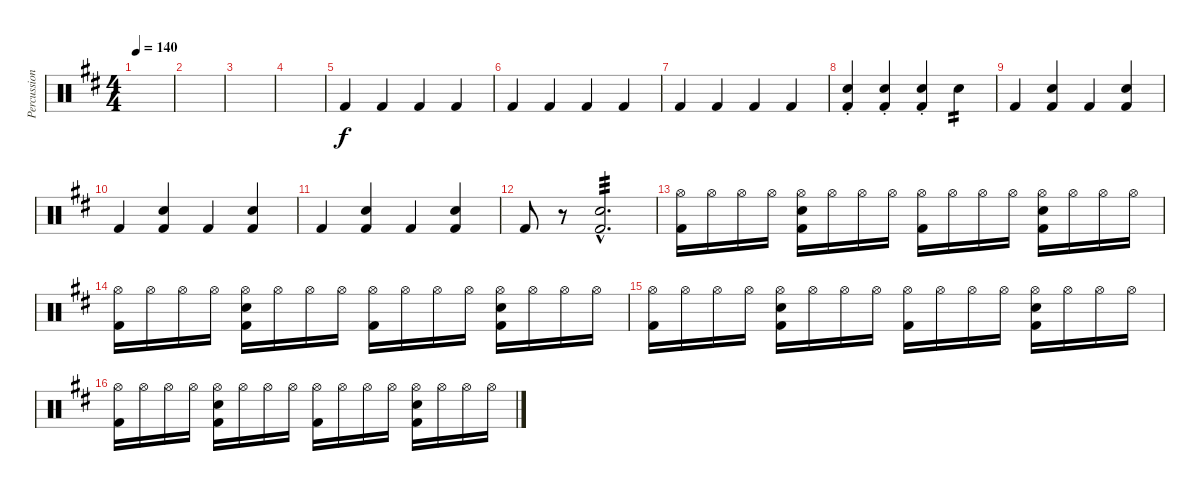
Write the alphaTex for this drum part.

\track ("Percussion" "Percussion") {instrument percussion}
\staff {score}
\articulation defaults
\ts (4 4)
\tempo 140
\clef neutral
\ks bminor
|
|
|
|
"Kick (hit) 2".4 "Kick (hit) 2".4 "Kick (hit) 2".4 "Kick (hit) 2".4 |
"Kick (hit) 2".4 "Kick (hit) 2".4 "Kick (hit) 2".4 "Kick (hit) 2".4 |
"Kick (hit) 2".4 "Kick (hit) 2".4 "Kick (hit) 2".4 "Kick (hit) 2".4 |
("Electric Snare (hit)"{st} "Kick (hit) 2"{st}).4 ("Electric Snare (hit)"{st} "Kick (hit) 2"{st}).4 ("Electric Snare (hit)"{st} "Kick (hit) 2"{st}).4 "Electric Snare (hit)".4{tp 2} |
"Kick (hit) 2".4 ("Electric Snare (hit)" "Kick (hit) 2").4 "Kick (hit) 2".4 ("Electric Snare (hit)" "Kick (hit) 2").4 |
"Kick (hit) 2".4 ("Electric Snare (hit)" "Kick (hit) 2").4 "Kick (hit) 2".4 ("Electric Snare (hit)" "Kick (hit) 2").4 |
"Kick (hit) 2".4 ("Electric Snare (hit)" "Kick (hit) 2").4 "Kick (hit) 2".4 ("Electric Snare (hit)" "Kick (hit) 2").4 |
"Kick (hit) 2".8 r.8{volume 0} ("Electric Snare (hit)"{hac} "Kick (hit) 2"{hac}).2{d tp 3 volume 15} |
("Hi-Hat (open)" "Kick (hit) 2").16 "Hi-Hat (open)".16 "Hi-Hat (open)".16 "Hi-Hat (open)".16 ("Hi-Hat (open)" "Electric Snare (hit)" "Kick (hit) 2").16 "Hi-Hat (open)".16 "Hi-Hat (open)".16 "Hi-Hat (open)".16 ("Hi-Hat (open)" "Kick (hit) 2").16 "Hi-Hat (open)".16 "Hi-Hat (open)".16 "Hi-Hat (open)".16 ("Hi-Hat (open)" "Electric Snare (hit)" "Kick (hit) 2").16 "Hi-Hat (open)".16 "Hi-Hat (open)".16 "Hi-Hat (open)".16 |
("Hi-Hat (open)" "Kick (hit) 2").16 "Hi-Hat (open)".16 "Hi-Hat (open)".16 "Hi-Hat (open)".16 ("Hi-Hat (open)" "Electric Snare (hit)" "Kick (hit) 2").16 "Hi-Hat (open)".16 "Hi-Hat (open)".16 "Hi-Hat (open)".16 ("Hi-Hat (open)" "Kick (hit) 2").16 "Hi-Hat (open)".16 "Hi-Hat (open)".16 "Hi-Hat (open)".16 ("Hi-Hat (open)" "Electric Snare (hit)" "Kick (hit) 2").16 "Hi-Hat (open)".16 "Hi-Hat (open)".16 "Hi-Hat (open)".16 |
("Hi-Hat (open)" "Kick (hit) 2").16 "Hi-Hat (open)".16 "Hi-Hat (open)".16 "Hi-Hat (open)".16 ("Hi-Hat (open)" "Electric Snare (hit)" "Kick (hit) 2").16 "Hi-Hat (open)".16 "Hi-Hat (open)".16 "Hi-Hat (open)".16 ("Hi-Hat (open)" "Kick (hit) 2").16 "Hi-Hat (open)".16 "Hi-Hat (open)".16 "Hi-Hat (open)".16 ("Hi-Hat (open)" "Electric Snare (hit)" "Kick (hit) 2").16 "Hi-Hat (open)".16 "Hi-Hat (open)".16 "Hi-Hat (open)".16 |
("Hi-Hat (open)" "Kick (hit) 2").16 "Hi-Hat (open)".16 "Hi-Hat (open)".16 "Hi-Hat (open)".16 ("Hi-Hat (open)" "Electric Snare (hit)" "Kick (hit) 2").16 "Hi-Hat (open)".16 "Hi-Hat (open)".16 "Hi-Hat (open)".16 ("Hi-Hat (open)" "Kick (hit) 2").16 "Hi-Hat (open)".16 "Hi-Hat (open)".16 "Hi-Hat (open)".16 ("Hi-Hat (open)" "Electric Snare (hit)" "Kick (hit) 2").16 "Hi-Hat (open)".16 "Hi-Hat (open)".16 "Hi-Hat (open)".16
